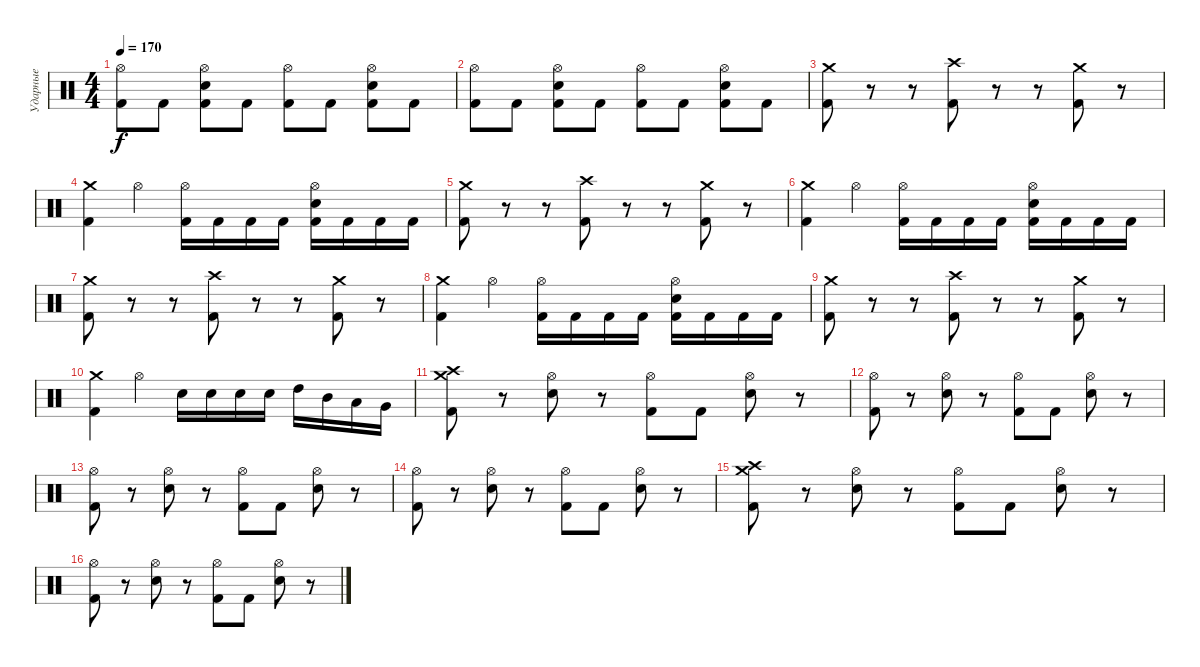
\track ("Ударные" "Ударные") {instrument percussion}
\staff {score}
\articulation defaults
\ts (4 4)
\tempo 170
\clef neutral
\ks c
("Hi-Hat (open)" "Kick (hit) 2").8{dy f} "Kick (hit) 2".8 ("Hi-Hat (open)" "Electric Snare (hit)" "Kick (hit) 2").8 "Kick (hit) 2".8 ("Hi-Hat (open)" "Kick (hit) 2").8 "Kick (hit) 2".8 ("Hi-Hat (open)" "Electric Snare (hit)" "Kick (hit) 2").8 "Kick (hit) 2".8 |
("Hi-Hat (open)" "Kick (hit) 2").8 "Kick (hit) 2".8 ("Hi-Hat (open)" "Electric Snare (hit)" "Kick (hit) 2").8 "Kick (hit) 2".8 ("Hi-Hat (open)" "Kick (hit) 2").8 "Kick (hit) 2".8 ("Hi-Hat (open)" "Electric Snare (hit)" "Kick (hit) 2").8 "Kick (hit) 2".8 |
("Crash medium (hit)" "Kick (hit) 2").8 r.8 r.8 ("Crash high (hit)" "Kick (hit) 2").8 r.8 r.8 ("Crash medium (hit)" "Kick (hit) 2").8 r.8 |
("Crash medium (hit)" "Kick (hit) 2").4 "Hi-Hat (open)".4 ("Hi-Hat (open)" "Kick (hit) 2").16 "Kick (hit) 2".16 "Kick (hit) 2".16 "Kick (hit) 2".16 ("Hi-Hat (open)" "Electric Snare (hit)" "Kick (hit) 2").16 "Kick (hit) 2".16 "Kick (hit) 2".16 "Kick (hit) 2".16 |
("Crash medium (hit)" "Kick (hit) 2").8 r.8 r.8 ("Crash high (hit)" "Kick (hit) 2").8 r.8 r.8 ("Crash medium (hit)" "Kick (hit) 2").8 r.8 |
("Crash medium (hit)" "Kick (hit) 2").4 "Hi-Hat (open)".4 ("Hi-Hat (open)" "Kick (hit) 2").16 "Kick (hit) 2".16 "Kick (hit) 2".16 "Kick (hit) 2".16 ("Hi-Hat (open)" "Electric Snare (hit)" "Kick (hit) 2").16 "Kick (hit) 2".16 "Kick (hit) 2".16 "Kick (hit) 2".16 |
("Crash medium (hit)" "Kick (hit) 2").8 r.8 r.8 ("Crash high (hit)" "Kick (hit) 2").8 r.8 r.8 ("Crash medium (hit)" "Kick (hit) 2").8 r.8 |
("Crash medium (hit)" "Kick (hit) 2").4 "Hi-Hat (open)".4 ("Hi-Hat (open)" "Kick (hit) 2").16 "Kick (hit) 2".16 "Kick (hit) 2".16 "Kick (hit) 2".16 ("Hi-Hat (open)" "Electric Snare (hit)" "Kick (hit) 2").16 "Kick (hit) 2".16 "Kick (hit) 2".16 "Kick (hit) 2".16 |
("Crash medium (hit)" "Kick (hit) 2").8 r.8 r.8 ("Crash high (hit)" "Kick (hit) 2").8 r.8 r.8 ("Crash medium (hit)" "Kick (hit) 2").8 r.8 |
("Crash medium (hit)" "Kick (hit) 2").4 "Hi-Hat (open)".4 "Electric Snare (hit)".16 "Electric Snare (hit)".16 "Electric Snare (hit)".16 "Electric Snare (hit)".16 "High Tom (hit)".16 "Mid Tom (hit)".16 "Low Tom (hit)".16 "Very Low Tom (hit)".16 |
("Crash medium (hit)" "Crash high (hit)" "Kick (hit) 2").8 r.8 ("Hi-Hat (open)" "Electric Snare (hit)").8 r.8 ("Hi-Hat (open)" "Kick (hit) 2").8 "Kick (hit) 2".8 ("Hi-Hat (open)" "Electric Snare (hit)").8 r.8 |
("Hi-Hat (open)" "Kick (hit) 2").8 r.8 ("Hi-Hat (open)" "Electric Snare (hit)").8 r.8 ("Hi-Hat (open)" "Kick (hit) 2").8 "Kick (hit) 2".8 ("Hi-Hat (open)" "Electric Snare (hit)").8 r.8 |
("Hi-Hat (open)" "Kick (hit) 2").8 r.8 ("Hi-Hat (open)" "Electric Snare (hit)").8 r.8 ("Hi-Hat (open)" "Kick (hit) 2").8 "Kick (hit) 2".8 ("Hi-Hat (open)" "Electric Snare (hit)").8 r.8 |
("Hi-Hat (open)" "Kick (hit) 2").8 r.8 ("Hi-Hat (open)" "Electric Snare (hit)").8 r.8 ("Hi-Hat (open)" "Kick (hit) 2").8 "Kick (hit) 2".8 ("Hi-Hat (open)" "Electric Snare (hit)").8 r.8 |
("Crash medium (hit)" "Crash high (hit)" "Kick (hit) 2").8 r.8 ("Hi-Hat (open)" "Electric Snare (hit)").8 r.8 ("Hi-Hat (open)" "Kick (hit) 2").8 "Kick (hit) 2".8 ("Hi-Hat (open)" "Electric Snare (hit)").8 r.8 |
("Hi-Hat (open)" "Kick (hit) 2").8 r.8 ("Hi-Hat (open)" "Electric Snare (hit)").8 r.8 ("Hi-Hat (open)" "Kick (hit) 2").8 "Kick (hit) 2".8 ("Hi-Hat (open)" "Electric Snare (hit)").8 r.8
